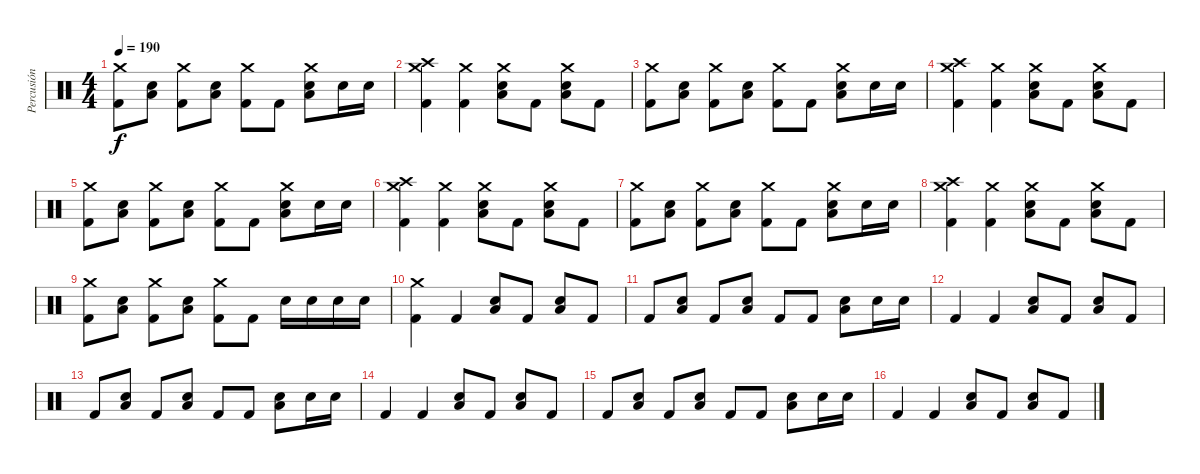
\track ("Percusión" "Percusión") {instrument percussion}
\staff {score}
\articulation defaults
\ts (4 4)
\tempo 190
\clef neutral
\ks c
("Crash medium (hit)" "Kick (hit) 2").8{dy f} ("Low Tom (hit)" "Snare (hit) 2").8 ("Crash medium (hit)" "Kick (hit) 2").8 ("Low Tom (hit)" "Snare (hit) 2").8 ("Crash medium (hit)" "Kick (hit) 2").8 "Kick (hit) 2".8 ("Crash medium (hit)" "Low Tom (hit)" "Snare (hit) 2").8 "Snare (hit) 2".16 "Snare (hit) 2".16 |
("Crash medium (hit)" "Crash high (hit)" "Kick (hit) 2").4 ("Crash medium (hit)" "Kick (hit) 2").4 ("Crash medium (hit)" "Low Tom (hit)" "Snare (hit) 2").8 "Kick (hit) 2".8 ("Crash medium (hit)" "Low Tom (hit)" "Snare (hit) 2").8 "Kick (hit) 2".8 |
("Crash medium (hit)" "Kick (hit) 2").8 ("Low Tom (hit)" "Snare (hit) 2").8 ("Crash medium (hit)" "Kick (hit) 2").8 ("Low Tom (hit)" "Snare (hit) 2").8 ("Crash medium (hit)" "Kick (hit) 2").8 "Kick (hit) 2".8 ("Crash medium (hit)" "Low Tom (hit)" "Snare (hit) 2").8 "Snare (hit) 2".16 "Snare (hit) 2".16 |
("Crash medium (hit)" "Crash high (hit)" "Kick (hit) 2").4 ("Crash medium (hit)" "Kick (hit) 2").4 ("Crash medium (hit)" "Low Tom (hit)" "Snare (hit) 2").8 "Kick (hit) 2".8 ("Crash medium (hit)" "Low Tom (hit)" "Snare (hit) 2").8 "Kick (hit) 2".8 |
("Crash medium (hit)" "Kick (hit) 2").8 ("Low Tom (hit)" "Snare (hit) 2").8 ("Crash medium (hit)" "Kick (hit) 2").8 ("Low Tom (hit)" "Snare (hit) 2").8 ("Crash medium (hit)" "Kick (hit) 2").8 "Kick (hit) 2".8 ("Crash medium (hit)" "Low Tom (hit)" "Snare (hit) 2").8 "Snare (hit) 2".16 "Snare (hit) 2".16 |
("Crash medium (hit)" "Crash high (hit)" "Kick (hit) 2").4 ("Crash medium (hit)" "Kick (hit) 2").4 ("Crash medium (hit)" "Low Tom (hit)" "Snare (hit) 2").8 "Kick (hit) 2".8 ("Crash medium (hit)" "Low Tom (hit)" "Snare (hit) 2").8 "Kick (hit) 2".8 |
("Crash medium (hit)" "Kick (hit) 2").8 ("Low Tom (hit)" "Snare (hit) 2").8 ("Crash medium (hit)" "Kick (hit) 2").8 ("Low Tom (hit)" "Snare (hit) 2").8 ("Crash medium (hit)" "Kick (hit) 2").8 "Kick (hit) 2".8 ("Crash medium (hit)" "Low Tom (hit)" "Snare (hit) 2").8 "Snare (hit) 2".16 "Snare (hit) 2".16 |
("Crash medium (hit)" "Crash high (hit)" "Kick (hit) 2").4 ("Crash medium (hit)" "Kick (hit) 2").4 ("Crash medium (hit)" "Low Tom (hit)" "Snare (hit) 2").8 "Kick (hit) 2".8 ("Crash medium (hit)" "Low Tom (hit)" "Snare (hit) 2").8 "Kick (hit) 2".8 |
("Crash medium (hit)" "Kick (hit) 2").8 ("Low Tom (hit)" "Snare (hit) 2").8 ("Crash medium (hit)" "Kick (hit) 2").8 ("Low Tom (hit)" "Snare (hit) 2").8 ("Crash medium (hit)" "Kick (hit) 2").8 "Kick (hit) 2".8 "Snare (hit) 2".16 "Snare (hit) 2".16 "Snare (hit) 2".16 "Snare (hit) 2".16 |
("Crash medium (hit)" "Kick (hit) 2").4 "Kick (hit) 2".4 ("Low Tom (hit)" "Snare (hit) 2").8 "Kick (hit) 2".8 ("Low Tom (hit)" "Snare (hit) 2").8 "Kick (hit) 2".8 |
"Kick (hit) 2".8 ("Low Tom (hit)" "Snare (hit) 2").8 "Kick (hit) 2".8 ("Low Tom (hit)" "Snare (hit) 2").8 "Kick (hit) 2".8 "Kick (hit) 2".8 ("Low Tom (hit)" "Snare (hit) 2").8 "Snare (hit) 2".16 "Snare (hit) 2".16 |
"Kick (hit) 2".4 "Kick (hit) 2".4 ("Low Tom (hit)" "Snare (hit) 2").8 "Kick (hit) 2".8 ("Low Tom (hit)" "Snare (hit) 2").8 "Kick (hit) 2".8 |
"Kick (hit) 2".8 ("Low Tom (hit)" "Snare (hit) 2").8 "Kick (hit) 2".8 ("Low Tom (hit)" "Snare (hit) 2").8 "Kick (hit) 2".8 "Kick (hit) 2".8 ("Low Tom (hit)" "Snare (hit) 2").8 "Snare (hit) 2".16 "Snare (hit) 2".16 |
"Kick (hit) 2".4 "Kick (hit) 2".4 ("Low Tom (hit)" "Snare (hit) 2").8 "Kick (hit) 2".8 ("Low Tom (hit)" "Snare (hit) 2").8 "Kick (hit) 2".8 |
"Kick (hit) 2".8 ("Low Tom (hit)" "Snare (hit) 2").8 "Kick (hit) 2".8 ("Low Tom (hit)" "Snare (hit) 2").8 "Kick (hit) 2".8 "Kick (hit) 2".8 ("Low Tom (hit)" "Snare (hit) 2").8 "Snare (hit) 2".16 "Snare (hit) 2".16 |
"Kick (hit) 2".4 "Kick (hit) 2".4 ("Low Tom (hit)" "Snare (hit) 2").8 "Kick (hit) 2".8 ("Low Tom (hit)" "Snare (hit) 2").8 "Kick (hit) 2".8
